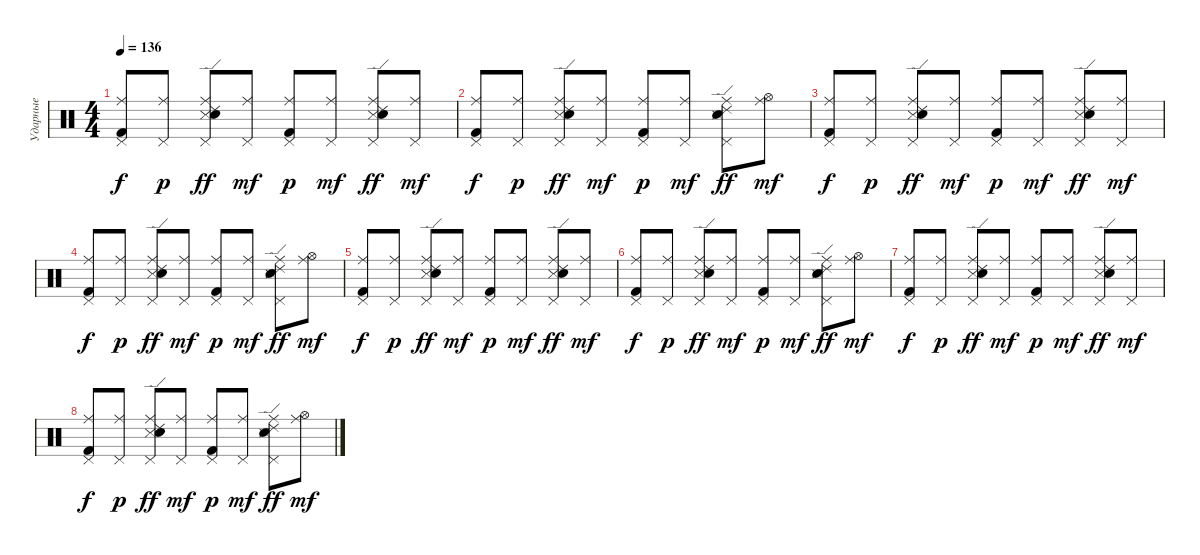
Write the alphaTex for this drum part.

\track ("Ударные" "Ударные") {instrument percussion}
\staff {score}
\articulation defaults
\ts (4 4)
\tempo 136
\clef neutral
\ks c
("Kick (hit) 2" "Ride (middle)" "Pedal Hi-Hat (hit)").8{dy f} ("Ride (middle)" "Pedal Hi-Hat (hit)").8{dy p} ("Ride (edge) 2" "Ride (middle)" "Pedal Hi-Hat (hit)" "Snare (side stick) 3" "Electric Snare (hit)").8{dy ff} ("Ride (middle)" "Pedal Hi-Hat (hit)").8{dy mf} ("Kick (hit) 2" "Ride (middle)" "Pedal Hi-Hat (hit)").8{dy p} ("Ride (middle)" "Pedal Hi-Hat (hit)").8{dy mf} ("Ride (edge) 2" "Ride (middle)" "Pedal Hi-Hat (hit)" "Snare (side stick) 3" "Electric Snare (hit)").8{dy ff} ("Ride (middle)" "Pedal Hi-Hat (hit)").8{dy mf} |
("Kick (hit) 2" "Ride (middle)" "Pedal Hi-Hat (hit)").8{dy f} ("Ride (middle)" "Pedal Hi-Hat (hit)").8{dy p} ("Ride (edge) 2" "Ride (middle)" "Pedal Hi-Hat (hit)" "Snare (side stick) 3" "Electric Snare (hit)").8{dy ff} ("Ride (middle)" "Pedal Hi-Hat (hit)").8{dy mf} ("Kick (hit) 2" "Ride (middle)" "Pedal Hi-Hat (hit)").8{dy p} ("Ride (middle)" "Pedal Hi-Hat (hit)").8{dy mf} ("Ride (edge) 2" "Ride (middle)" "Pedal Hi-Hat (hit)" "Snare (side stick) 3" "Electric Snare (hit)").8{dy ff} ("Ride (middle)" "Hi-Hat (open)").8{dy mf} |
("Kick (hit) 2" "Ride (middle)" "Pedal Hi-Hat (hit)").8{dy f} ("Ride (middle)" "Pedal Hi-Hat (hit)").8{dy p} ("Ride (edge) 2" "Ride (middle)" "Pedal Hi-Hat (hit)" "Snare (side stick) 3" "Electric Snare (hit)").8{dy ff} ("Ride (middle)" "Pedal Hi-Hat (hit)").8{dy mf} ("Kick (hit) 2" "Ride (middle)" "Pedal Hi-Hat (hit)").8{dy p} ("Ride (middle)" "Pedal Hi-Hat (hit)").8{dy mf} ("Ride (edge) 2" "Ride (middle)" "Pedal Hi-Hat (hit)" "Snare (side stick) 3" "Electric Snare (hit)").8{dy ff} ("Ride (middle)" "Pedal Hi-Hat (hit)").8{dy mf} |
("Kick (hit) 2" "Ride (middle)" "Pedal Hi-Hat (hit)").8{dy f} ("Ride (middle)" "Pedal Hi-Hat (hit)").8{dy p} ("Ride (edge) 2" "Ride (middle)" "Pedal Hi-Hat (hit)" "Snare (side stick) 3" "Electric Snare (hit)").8{dy ff} ("Ride (middle)" "Pedal Hi-Hat (hit)").8{dy mf} ("Kick (hit) 2" "Ride (middle)" "Pedal Hi-Hat (hit)").8{dy p} ("Ride (middle)" "Pedal Hi-Hat (hit)").8{dy mf} ("Ride (edge) 2" "Ride (middle)" "Pedal Hi-Hat (hit)" "Snare (side stick) 3" "Electric Snare (hit)").8{dy ff} ("Ride (middle)" "Hi-Hat (open)").8{dy mf} |
("Kick (hit) 2" "Ride (middle)" "Pedal Hi-Hat (hit)").8{dy f} ("Ride (middle)" "Pedal Hi-Hat (hit)").8{dy p} ("Ride (edge) 2" "Ride (middle)" "Pedal Hi-Hat (hit)" "Snare (side stick) 3" "Electric Snare (hit)").8{dy ff} ("Ride (middle)" "Pedal Hi-Hat (hit)").8{dy mf} ("Kick (hit) 2" "Ride (middle)" "Pedal Hi-Hat (hit)").8{dy p} ("Ride (middle)" "Pedal Hi-Hat (hit)").8{dy mf} ("Ride (edge) 2" "Ride (middle)" "Pedal Hi-Hat (hit)" "Snare (side stick) 3" "Electric Snare (hit)").8{dy ff} ("Ride (middle)" "Pedal Hi-Hat (hit)").8{dy mf} |
("Kick (hit) 2" "Ride (middle)" "Pedal Hi-Hat (hit)").8{dy f} ("Ride (middle)" "Pedal Hi-Hat (hit)").8{dy p} ("Ride (edge) 2" "Ride (middle)" "Pedal Hi-Hat (hit)" "Snare (side stick) 3" "Electric Snare (hit)").8{dy ff} ("Ride (middle)" "Pedal Hi-Hat (hit)").8{dy mf} ("Kick (hit) 2" "Ride (middle)" "Pedal Hi-Hat (hit)").8{dy p} ("Ride (middle)" "Pedal Hi-Hat (hit)").8{dy mf} ("Ride (edge) 2" "Ride (middle)" "Pedal Hi-Hat (hit)" "Snare (side stick) 3" "Electric Snare (hit)").8{dy ff} ("Ride (middle)" "Hi-Hat (open)").8{dy mf} |
("Kick (hit) 2" "Ride (middle)" "Pedal Hi-Hat (hit)").8{dy f} ("Ride (middle)" "Pedal Hi-Hat (hit)").8{dy p} ("Ride (edge) 2" "Ride (middle)" "Pedal Hi-Hat (hit)" "Snare (side stick) 3" "Electric Snare (hit)").8{dy ff} ("Ride (middle)" "Pedal Hi-Hat (hit)").8{dy mf} ("Kick (hit) 2" "Ride (middle)" "Pedal Hi-Hat (hit)").8{dy p} ("Ride (middle)" "Pedal Hi-Hat (hit)").8{dy mf} ("Ride (edge) 2" "Ride (middle)" "Pedal Hi-Hat (hit)" "Snare (side stick) 3" "Electric Snare (hit)").8{dy ff} ("Ride (middle)" "Pedal Hi-Hat (hit)").8{dy mf} |
("Kick (hit) 2" "Ride (middle)" "Pedal Hi-Hat (hit)").8{dy f} ("Ride (middle)" "Pedal Hi-Hat (hit)").8{dy p} ("Ride (edge) 2" "Ride (middle)" "Pedal Hi-Hat (hit)" "Snare (side stick) 3" "Electric Snare (hit)").8{dy ff} ("Ride (middle)" "Pedal Hi-Hat (hit)").8{dy mf} ("Kick (hit) 2" "Ride (middle)" "Pedal Hi-Hat (hit)").8{dy p} ("Ride (middle)" "Pedal Hi-Hat (hit)").8{dy mf} ("Ride (edge) 2" "Ride (middle)" "Pedal Hi-Hat (hit)" "Snare (side stick) 3" "Electric Snare (hit)").8{dy ff} ("Ride (middle)" "Hi-Hat (open)").8{dy mf}
